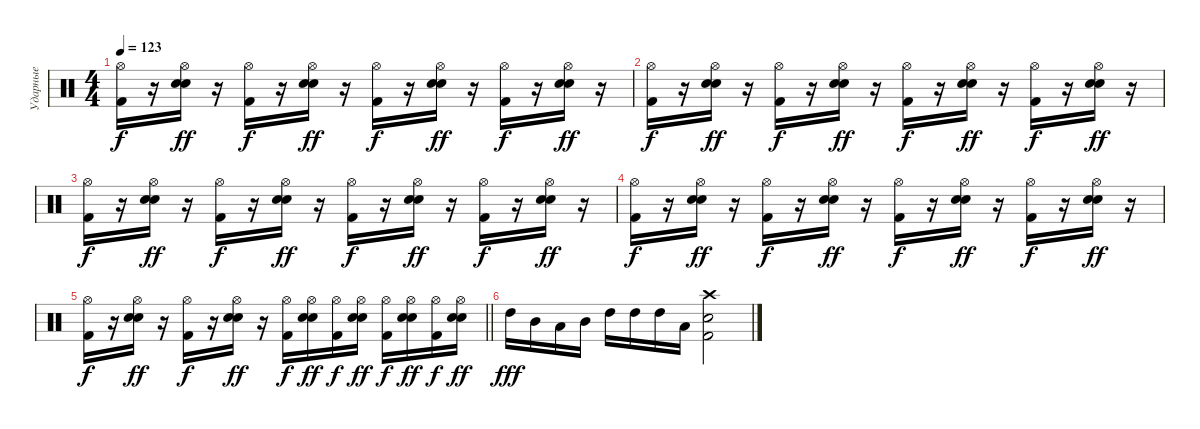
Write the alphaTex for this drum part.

\track ("Ударные" "Ударные") {instrument percussion}
\staff {score}
\articulation defaults
\ts (4 4)
\tempo 123
\clef neutral
\ks c
("Hi-Hat (open)" "Kick (hit) 2").16{dy f} r.16 ("Hi-Hat (open)" "Electric Snare (hit)" "Snare (hit) 2").16{dy ff} r.16 ("Hi-Hat (open)" "Kick (hit) 2").16{dy f} r.16 ("Hi-Hat (open)" "Electric Snare (hit)" "Snare (hit) 2").16{dy ff} r.16 ("Hi-Hat (open)" "Kick (hit) 2").16{dy f} r.16 ("Hi-Hat (open)" "Electric Snare (hit)" "Snare (hit) 2").16{dy ff} r.16 ("Hi-Hat (open)" "Kick (hit) 2").16{dy f} r.16 ("Hi-Hat (open)" "Electric Snare (hit)" "Snare (hit) 2").16{dy ff} r.16 |
("Hi-Hat (open)" "Kick (hit) 2").16{dy f} r.16 ("Hi-Hat (open)" "Electric Snare (hit)" "Snare (hit) 2").16{dy ff} r.16 ("Hi-Hat (open)" "Kick (hit) 2").16{dy f} r.16 ("Hi-Hat (open)" "Electric Snare (hit)" "Snare (hit) 2").16{dy ff} r.16 ("Hi-Hat (open)" "Kick (hit) 2").16{dy f} r.16 ("Hi-Hat (open)" "Electric Snare (hit)" "Snare (hit) 2").16{dy ff} r.16 ("Hi-Hat (open)" "Kick (hit) 2").16{dy f} r.16 ("Hi-Hat (open)" "Electric Snare (hit)" "Snare (hit) 2").16{dy ff} r.16 |
("Hi-Hat (open)" "Kick (hit) 2").16{dy f} r.16 ("Hi-Hat (open)" "Electric Snare (hit)" "Snare (hit) 2").16{dy ff} r.16 ("Hi-Hat (open)" "Kick (hit) 2").16{dy f} r.16 ("Hi-Hat (open)" "Electric Snare (hit)" "Snare (hit) 2").16{dy ff} r.16 ("Hi-Hat (open)" "Kick (hit) 2").16{dy f} r.16 ("Hi-Hat (open)" "Electric Snare (hit)" "Snare (hit) 2").16{dy ff} r.16 ("Hi-Hat (open)" "Kick (hit) 2").16{dy f} r.16 ("Hi-Hat (open)" "Electric Snare (hit)" "Snare (hit) 2").16{dy ff} r.16 |
("Hi-Hat (open)" "Kick (hit) 2").16{dy f} r.16 ("Hi-Hat (open)" "Electric Snare (hit)" "Snare (hit) 2").16{dy ff} r.16 ("Hi-Hat (open)" "Kick (hit) 2").16{dy f} r.16 ("Hi-Hat (open)" "Electric Snare (hit)" "Snare (hit) 2").16{dy ff} r.16 ("Hi-Hat (open)" "Kick (hit) 2").16{dy f} r.16 ("Hi-Hat (open)" "Electric Snare (hit)" "Snare (hit) 2").16{dy ff} r.16 ("Hi-Hat (open)" "Kick (hit) 2").16{dy f} r.16 ("Hi-Hat (open)" "Electric Snare (hit)" "Snare (hit) 2").16{dy ff} r.16 |
\barLineRight lightlight
("Hi-Hat (open)" "Kick (hit) 2").16{dy f} r.16 ("Hi-Hat (open)" "Electric Snare (hit)" "Snare (hit) 2").16{dy ff} r.16 ("Hi-Hat (open)" "Kick (hit) 2").16{dy f} r.16 ("Hi-Hat (open)" "Electric Snare (hit)" "Snare (hit) 2").16{dy ff} r.16 ("Hi-Hat (open)" "Kick (hit) 2").16{dy f} ("Hi-Hat (open)" "Electric Snare (hit)" "Snare (hit) 2").16{dy ff} ("Hi-Hat (open)" "Kick (hit) 2").16{dy f} ("Hi-Hat (open)" "Electric Snare (hit)" "Snare (hit) 2").16{dy ff} ("Hi-Hat (open)" "Kick (hit) 2").16{dy f} ("Hi-Hat (open)" "Electric Snare (hit)" "Snare (hit) 2").16{dy ff} ("Hi-Hat (open)" "Kick (hit) 2").16{dy f} ("Hi-Hat (open)" "Electric Snare (hit)" "Snare (hit) 2").16{dy ff} |
"High Tom (hit)".16{dy fff} "Mid Tom (hit)".16 "Low Tom (hit)".16 "Mid Tom (hit)".16 "High Tom (hit)".16 "High Tom (hit)".16 "High Tom (hit)".16 "Low Tom (hit)".16 ("Crash high (hit)" "Snare (hit) 2" "Kick (hit) 2").2
